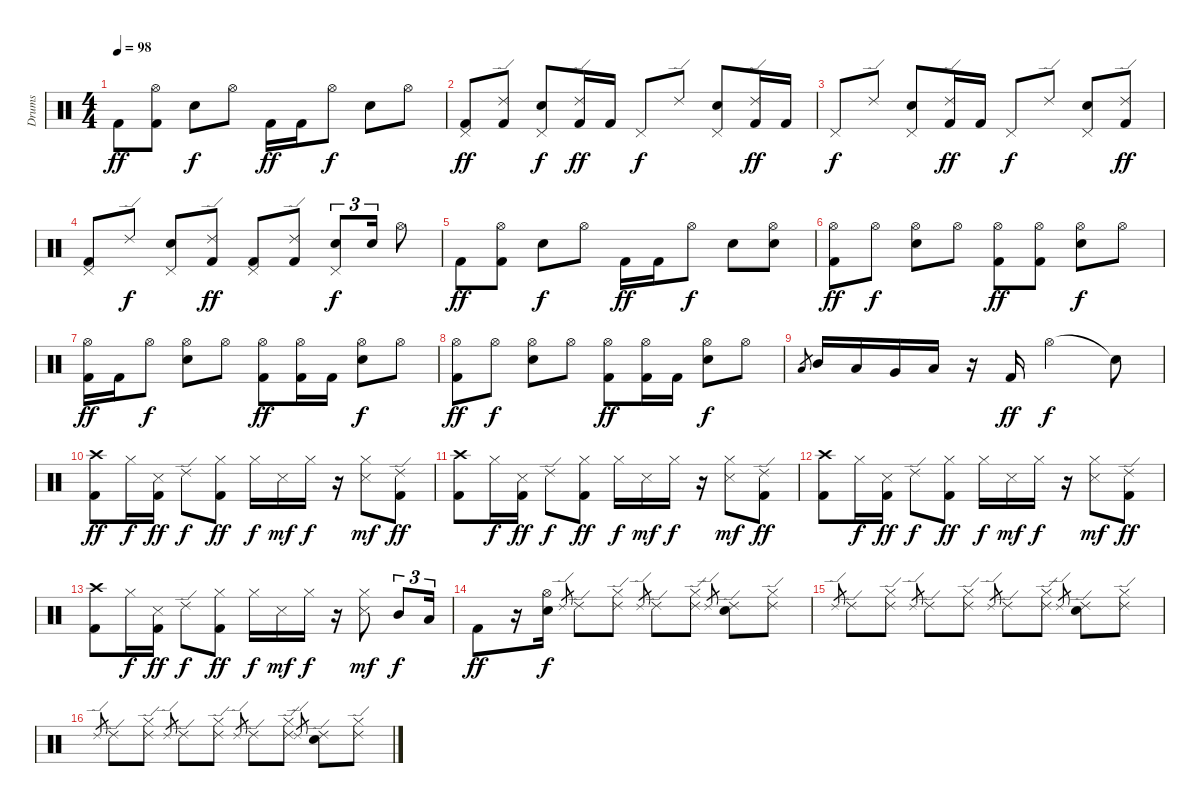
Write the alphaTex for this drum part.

\track ("Drums" "Drums") {instrument percussion}
\staff {score}
\articulation defaults
\ts (4 4)
\tempo 98
\clef neutral
\ks c "Kick (hit) 2".8{dy ff}
("Hi-Hat (open)" "Kick (hit) 2").8 "Snare (hit) 2".8{dy f} "Hi-Hat (open)".8 "Kick (hit) 2".16{dy ff} "Kick (hit) 2".16 "Hi-Hat (open)".8{dy f} "Snare (hit) 2".8 "Hi-Hat (open)".8 |
("Pedal Hi-Hat (hit)" "Kick (hit) 2").8{dy ff} ("Ride (edge) 2" "Kick (hit) 2").8 ("Pedal Hi-Hat (hit)" "Snare (hit) 2").8{dy f} ("Ride (edge) 2" "Kick (hit) 2").16{dy ff} "Kick (hit) 2".16 "Pedal Hi-Hat (hit)".8{dy f} "Ride (edge) 2".8 ("Pedal Hi-Hat (hit)" "Snare (hit) 2").8 ("Ride (edge) 2" "Kick (hit) 2").16{dy ff} "Kick (hit) 2".16 |
"Pedal Hi-Hat (hit)".8{dy f} "Ride (edge) 2".8 ("Pedal Hi-Hat (hit)" "Snare (hit) 2").8 ("Ride (edge) 2" "Kick (hit) 2").16{dy ff} "Kick (hit) 2".16 "Pedal Hi-Hat (hit)".8{dy f} "Ride (edge) 2".8 ("Pedal Hi-Hat (hit)" "Snare (hit) 2").8 ("Ride (edge) 2" "Kick (hit) 2").8{dy ff} |
("Pedal Hi-Hat (hit)" "Kick (hit) 2").8 "Ride (edge) 2".8{dy f} ("Pedal Hi-Hat (hit)" "Snare (hit) 2").8 ("Ride (edge) 2" "Kick (hit) 2").8{dy ff} ("Pedal Hi-Hat (hit)" "Kick (hit) 2").8 ("Ride (edge) 2" "Kick (hit) 2").8 ("Pedal Hi-Hat (hit)" "Snare (hit) 2").8{tu (3 2) dy f} "Snare (hit) 2".16{tu (3 2)} "Hi-Hat (open)".8 |
"Kick (hit) 2".8{dy ff} ("Hi-Hat (open)" "Kick (hit) 2").8 "Snare (hit) 2".8{dy f} "Hi-Hat (open)".8 "Kick (hit) 2".16{dy ff} "Kick (hit) 2".16 "Hi-Hat (open)".8{dy f} "Snare (hit) 2".8 ("Hi-Hat (open)" "Snare (hit) 2").8 |
("Hi-Hat (open)" "Kick (hit) 2").8{dy ff} "Hi-Hat (open)".8{dy f} ("Hi-Hat (open)" "Snare (hit) 2").8 "Hi-Hat (open)".8 ("Hi-Hat (open)" "Kick (hit) 2").8{dy ff} ("Hi-Hat (open)" "Kick (hit) 2").8 ("Hi-Hat (open)" "Snare (hit) 2").8{dy f} "Hi-Hat (open)".8 |
("Hi-Hat (open)" "Kick (hit) 2").16{dy ff} "Kick (hit) 2".16 "Hi-Hat (open)".8{dy f} ("Hi-Hat (open)" "Snare (hit) 2").8 "Hi-Hat (open)".8 ("Hi-Hat (open)" "Kick (hit) 2").8{dy ff} ("Hi-Hat (open)" "Kick (hit) 2").16 "Kick (hit) 2".16 ("Hi-Hat (open)" "Snare (hit) 2").8{dy f} "Hi-Hat (open)".8 |
("Hi-Hat (open)" "Kick (hit) 2").8{dy ff} "Hi-Hat (open)".8{dy f} ("Hi-Hat (open)" "Snare (hit) 2").8 "Hi-Hat (open)".8 ("Hi-Hat (open)" "Kick (hit) 2").8{dy ff} ("Hi-Hat (open)" "Kick (hit) 2").16 "Kick (hit) 2".16 ("Hi-Hat (open)" "Snare (hit) 2").8{dy f} "Hi-Hat (open)".8 |
"Low Tom (hit)".8{gr} "Mid Tom (hit)".16 "Low Tom (hit)".16 "Very Low Tom (hit)".16 "Low Floor Tom (hit)".16 r.16 "Kick (hit) 2".16{dy ff} "Hi-Hat (open)".2{dy f} "Snare (hit)"{t}.8 |
("Crash high (hit)" "Kick (hit) 2").8{dy ff} "Hi-Hat (closed)".16{dy f} ("Snare (side stick) 3" "Kick (hit) 2").16{dy ff} "Ride (edge) 2".8{dy f} ("Hi-Hat (closed)" "Kick (hit) 2").8{dy ff} "Hi-Hat (closed)".16{dy f} "Snare (side stick) 3".16{dy mf} "Hi-Hat (closed)".16{dy f} r.16 ("Hi-Hat (closed)" "Snare (side stick) 3").8{dy mf} ("Ride (edge) 2" "Kick (hit) 2").8{dy ff} |
("Crash high (hit)" "Kick (hit) 2").8 "Hi-Hat (closed)".16{dy f} ("Snare (side stick) 3" "Kick (hit) 2").16{dy ff} "Ride (edge) 2".8{dy f} ("Hi-Hat (closed)" "Kick (hit) 2").8{dy ff} "Hi-Hat (closed)".16{dy f} "Snare (side stick) 3".16{dy mf} "Hi-Hat (closed)".16{dy f} r.16 ("Hi-Hat (closed)" "Snare (side stick) 3").8{dy mf} ("Ride (edge) 2" "Kick (hit) 2").8{dy ff} |
("Crash high (hit)" "Kick (hit) 2").8 "Hi-Hat (closed)".16{dy f} ("Snare (side stick) 3" "Kick (hit) 2").16{dy ff} "Ride (edge) 2".8{dy f} ("Hi-Hat (closed)" "Kick (hit) 2").8{dy ff} "Hi-Hat (closed)".16{dy f} "Snare (side stick) 3".16{dy mf} "Hi-Hat (closed)".16{dy f} r.16 ("Hi-Hat (closed)" "Snare (side stick) 3").8{dy mf} ("Ride (edge) 2" "Kick (hit) 2").8{dy ff} |
("Crash high (hit)" "Kick (hit) 2").8 "Hi-Hat (closed)".16{dy f} ("Snare (side stick) 3" "Kick (hit) 2").16{dy ff} "Ride (edge) 2".8{dy f} ("Hi-Hat (closed)" "Kick (hit) 2").8{dy ff} "Hi-Hat (closed)".16{dy f} "Snare (side stick) 3".16{dy mf} "Hi-Hat (closed)".16{dy f} r.16 ("Hi-Hat (closed)" "Snare (side stick) 3").8{dy mf} "Mid Tom (hit)".8{tu (3 2) dy f} "Low Tom (hit)".16{tu (3 2)} |
"Kick (hit) 2".8{dy ff} r.16 ("Hi-Hat (open)" "Snare (hit) 2").16{dy f} "Ride (edge) 2".8{gr} "Ride (edge) 2".8 ("Ride (edge) 2" "Hi-Hat (closed)").8 "Ride (edge) 2".8{gr} "Ride (edge) 2".8 ("Ride (edge) 2" "Hi-Hat (closed)").8 "Ride (edge) 2".8{gr} ("Ride (edge) 2" "Snare (hit) 2").8 ("Ride (edge) 2" "Hi-Hat (closed)").8 |
"Ride (edge) 2".8{gr} "Ride (edge) 2".8 ("Ride (edge) 2" "Hi-Hat (closed)").8 "Ride (edge) 2".8{gr} "Ride (edge) 2".8 ("Ride (edge) 2" "Hi-Hat (closed)").8 "Ride (edge) 2".8{gr} "Ride (edge) 2".8 ("Ride (edge) 2" "Hi-Hat (closed)").8 "Ride (edge) 2".8{gr} ("Ride (edge) 2" "Snare (hit) 2").8 ("Ride (edge) 2" "Hi-Hat (closed)").8 |
"Ride (edge) 2".8{gr} "Ride (edge) 2".8 ("Ride (edge) 2" "Hi-Hat (closed)").8 "Ride (edge) 2".8{gr} "Ride (edge) 2".8 ("Ride (edge) 2" "Hi-Hat (closed)").8 "Ride (edge) 2".8{gr} "Ride (edge) 2".8 ("Ride (edge) 2" "Hi-Hat (closed)").8 "Ride (edge) 2".8{gr} ("Ride (edge) 2" "Snare (hit) 2").8 ("Ride (edge) 2" "Hi-Hat (closed)").8
